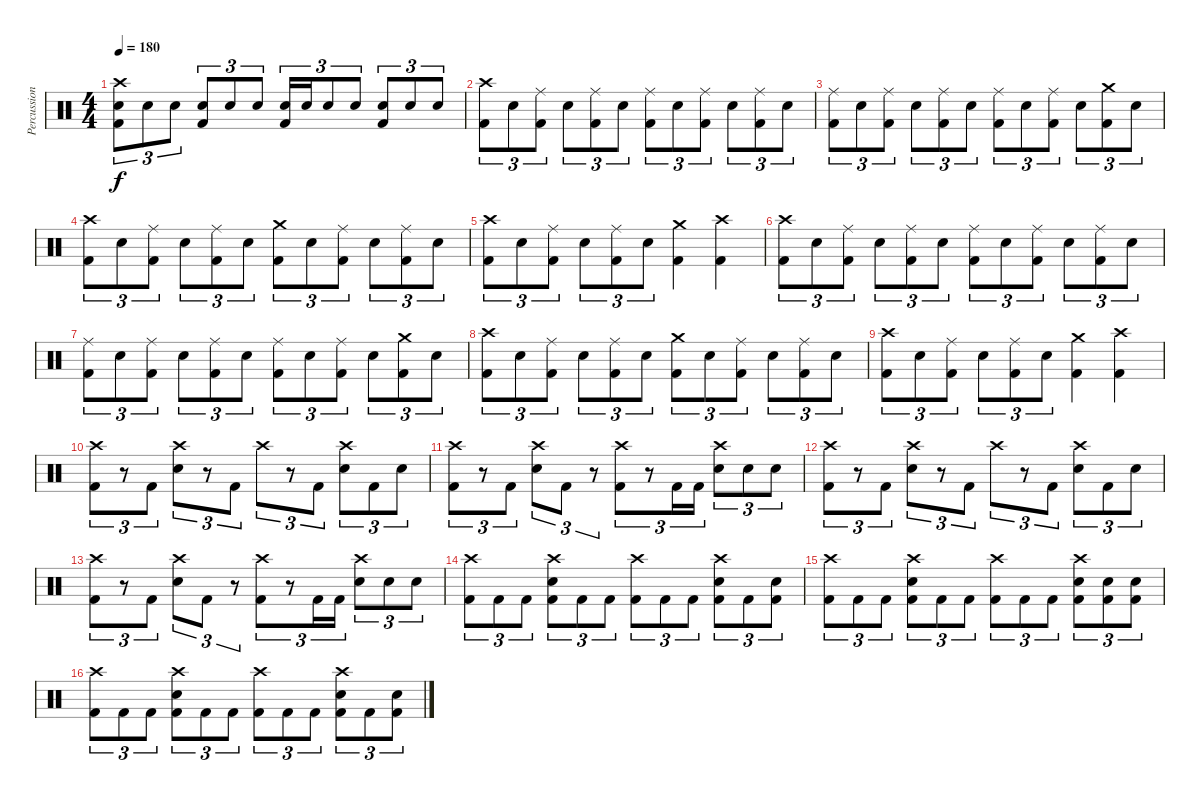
\track ("Percussion" "Percussion") {instrument percussion}
\staff {score}
\articulation defaults
\ts (4 4)
\tempo 180
\clef neutral
\ks c
("Crash high (hit)" "Electric Snare (hit)" "Kick (hit) 2").8{tu (3 2) dy f} "Electric Snare (hit)".8{tu (3 2)} "Electric Snare (hit)".8{tu (3 2)} ("Electric Snare (hit)" "Kick (hit) 2").8{tu (3 2)} "Electric Snare (hit)".8{tu (3 2)} "Electric Snare (hit)".8{tu (3 2)} ("Electric Snare (hit)" "Kick (hit) 2").16{tu (3 2)} "Electric Snare (hit)".16{tu (3 2)} "Electric Snare (hit)".8{tu (3 2)} "Electric Snare (hit)".8{tu (3 2)} ("Electric Snare (hit)" "Kick (hit) 2").8{tu (3 2)} "Electric Snare (hit)".8{tu (3 2)} "Electric Snare (hit)".8{tu (3 2)} |
("Crash high (hit)" "Kick (hit) 2").8{tu (3 2)} "Electric Snare (hit)".8{tu (3 2)} ("Ride (middle)" "Kick (hit) 2").8{tu (3 2)} "Electric Snare (hit)".8{tu (3 2)} ("Ride (middle)" "Kick (hit) 2").8{tu (3 2)} "Electric Snare (hit)".8{tu (3 2)} ("Ride (middle)" "Kick (hit) 2").8{tu (3 2)} "Electric Snare (hit)".8{tu (3 2)} ("Ride (middle)" "Kick (hit) 2").8{tu (3 2)} "Electric Snare (hit)".8{tu (3 2)} ("Ride (middle)" "Kick (hit) 2").8{tu (3 2)} "Electric Snare (hit)".8{tu (3 2)} |
("Ride (middle)" "Kick (hit) 2").8{tu (3 2)} "Electric Snare (hit)".8{tu (3 2)} ("Ride (middle)" "Kick (hit) 2").8{tu (3 2)} "Electric Snare (hit)".8{tu (3 2)} ("Ride (middle)" "Kick (hit) 2").8{tu (3 2)} "Electric Snare (hit)".8{tu (3 2)} ("Ride (middle)" "Kick (hit) 2").8{tu (3 2)} "Electric Snare (hit)".8{tu (3 2)} ("Ride (middle)" "Kick (hit) 2").8{tu (3 2)} "Electric Snare (hit)".8{tu (3 2)} ("Crash medium (hit)" "Kick (hit) 2").8{tu (3 2)} "Electric Snare (hit)".8{tu (3 2)} |
("Crash high (hit)" "Kick (hit) 2").8{tu (3 2)} "Electric Snare (hit)".8{tu (3 2)} ("Ride (middle)" "Kick (hit) 2").8{tu (3 2)} "Electric Snare (hit)".8{tu (3 2)} ("Ride (middle)" "Kick (hit) 2").8{tu (3 2)} "Electric Snare (hit)".8{tu (3 2)} ("Crash medium (hit)" "Kick (hit) 2").8{tu (3 2)} "Electric Snare (hit)".8{tu (3 2)} ("Ride (middle)" "Kick (hit) 2").8{tu (3 2)} "Electric Snare (hit)".8{tu (3 2)} ("Ride (middle)" "Kick (hit) 2").8{tu (3 2)} "Electric Snare (hit)".8{tu (3 2)} |
("Crash high (hit)" "Kick (hit) 2").8{tu (3 2)} "Electric Snare (hit)".8{tu (3 2)} ("Ride (middle)" "Kick (hit) 2").8{tu (3 2)} "Electric Snare (hit)".8{tu (3 2)} ("Ride (middle)" "Kick (hit) 2").8{tu (3 2)} "Electric Snare (hit)".8{tu (3 2)} ("Crash medium (hit)" "Kick (hit) 2").4 ("Crash high (hit)" "Kick (hit) 2").4 |
("Crash high (hit)" "Kick (hit) 2").8{tu (3 2)} "Electric Snare (hit)".8{tu (3 2)} ("Ride (middle)" "Kick (hit) 2").8{tu (3 2)} "Electric Snare (hit)".8{tu (3 2)} ("Ride (middle)" "Kick (hit) 2").8{tu (3 2)} "Electric Snare (hit)".8{tu (3 2)} ("Ride (middle)" "Kick (hit) 2").8{tu (3 2)} "Electric Snare (hit)".8{tu (3 2)} ("Ride (middle)" "Kick (hit) 2").8{tu (3 2)} "Electric Snare (hit)".8{tu (3 2)} ("Ride (middle)" "Kick (hit) 2").8{tu (3 2)} "Electric Snare (hit)".8{tu (3 2)} |
("Ride (middle)" "Kick (hit) 2").8{tu (3 2)} "Electric Snare (hit)".8{tu (3 2)} ("Ride (middle)" "Kick (hit) 2").8{tu (3 2)} "Electric Snare (hit)".8{tu (3 2)} ("Ride (middle)" "Kick (hit) 2").8{tu (3 2)} "Electric Snare (hit)".8{tu (3 2)} ("Ride (middle)" "Kick (hit) 2").8{tu (3 2)} "Electric Snare (hit)".8{tu (3 2)} ("Ride (middle)" "Kick (hit) 2").8{tu (3 2)} "Electric Snare (hit)".8{tu (3 2)} ("Crash medium (hit)" "Kick (hit) 2").8{tu (3 2)} "Electric Snare (hit)".8{tu (3 2)} |
("Crash high (hit)" "Kick (hit) 2").8{tu (3 2)} "Electric Snare (hit)".8{tu (3 2)} ("Ride (middle)" "Kick (hit) 2").8{tu (3 2)} "Electric Snare (hit)".8{tu (3 2)} ("Ride (middle)" "Kick (hit) 2").8{tu (3 2)} "Electric Snare (hit)".8{tu (3 2)} ("Crash medium (hit)" "Kick (hit) 2").8{tu (3 2)} "Electric Snare (hit)".8{tu (3 2)} ("Ride (middle)" "Kick (hit) 2").8{tu (3 2)} "Electric Snare (hit)".8{tu (3 2)} ("Ride (middle)" "Kick (hit) 2").8{tu (3 2)} "Electric Snare (hit)".8{tu (3 2)} |
("Crash high (hit)" "Kick (hit) 2").8{tu (3 2)} "Electric Snare (hit)".8{tu (3 2)} ("Ride (middle)" "Kick (hit) 2").8{tu (3 2)} "Electric Snare (hit)".8{tu (3 2)} ("Ride (middle)" "Kick (hit) 2").8{tu (3 2)} "Electric Snare (hit)".8{tu (3 2)} ("Crash medium (hit)" "Kick (hit) 2").4 ("Crash high (hit)" "Kick (hit) 2").4 |
("Crash high (hit)" "Kick (hit) 2").8{tu (3 2)} r.8{tu (3 2)} "Kick (hit) 2".8{tu (3 2)} ("Crash high (hit)" "Electric Snare (hit)").8{tu (3 2)} r.8{tu (3 2)} "Kick (hit) 2".8{tu (3 2)} "Crash high (hit)".8{tu (3 2)} r.8{tu (3 2)} "Kick (hit) 2".8{tu (3 2)} ("Crash high (hit)" "Electric Snare (hit)").8{tu (3 2)} "Kick (hit) 2".8{tu (3 2)} "Electric Snare (hit)".8{tu (3 2)} |
("Crash high (hit)" "Kick (hit) 2").8{tu (3 2)} r.8{tu (3 2)} "Kick (hit) 2".8{tu (3 2)} ("Crash high (hit)" "Electric Snare (hit)").8{tu (3 2)} "Kick (hit) 2".8{tu (3 2)} r.8{tu (3 2)} ("Crash high (hit)" "Kick (hit) 2").8{tu (3 2)} r.8{tu (3 2)} "Kick (hit) 2".16{tu (3 2)} "Kick (hit) 2".16{tu (3 2)} ("Crash high (hit)" "Electric Snare (hit)").8{tu (3 2)} "Electric Snare (hit)".8{tu (3 2)} "Electric Snare (hit)".8{tu (3 2)} |
("Crash high (hit)" "Kick (hit) 2").8{tu (3 2)} r.8{tu (3 2)} "Kick (hit) 2".8{tu (3 2)} ("Crash high (hit)" "Electric Snare (hit)").8{tu (3 2)} r.8{tu (3 2)} "Kick (hit) 2".8{tu (3 2)} "Crash high (hit)".8{tu (3 2)} r.8{tu (3 2)} "Kick (hit) 2".8{tu (3 2)} ("Crash high (hit)" "Electric Snare (hit)").8{tu (3 2)} "Kick (hit) 2".8{tu (3 2)} "Electric Snare (hit)".8{tu (3 2)} |
("Crash high (hit)" "Kick (hit) 2").8{tu (3 2)} r.8{tu (3 2)} "Kick (hit) 2".8{tu (3 2)} ("Crash high (hit)" "Electric Snare (hit)").8{tu (3 2)} "Kick (hit) 2".8{tu (3 2)} r.8{tu (3 2)} ("Crash high (hit)" "Kick (hit) 2").8{tu (3 2)} r.8{tu (3 2)} "Kick (hit) 2".16{tu (3 2)} "Kick (hit) 2".16{tu (3 2)} ("Crash high (hit)" "Electric Snare (hit)").8{tu (3 2)} "Electric Snare (hit)".8{tu (3 2)} "Electric Snare (hit)".8{tu (3 2)} |
("Crash high (hit)" "Kick (hit) 2").8{tu (3 2)} "Kick (hit) 2".8{tu (3 2)} "Kick (hit) 2".8{tu (3 2)} ("Crash high (hit)" "Electric Snare (hit)" "Kick (hit) 2").8{tu (3 2)} "Kick (hit) 2".8{tu (3 2)} "Kick (hit) 2".8{tu (3 2)} ("Crash high (hit)" "Kick (hit) 2").8{tu (3 2)} "Kick (hit) 2".8{tu (3 2)} "Kick (hit) 2".8{tu (3 2)} ("Crash high (hit)" "Electric Snare (hit)" "Kick (hit) 2").8{tu (3 2)} "Kick (hit) 2".8{tu (3 2)} ("Electric Snare (hit)" "Kick (hit) 2").8{tu (3 2)} |
("Crash high (hit)" "Kick (hit) 2").8{tu (3 2)} "Kick (hit) 2".8{tu (3 2)} "Kick (hit) 2".8{tu (3 2)} ("Crash high (hit)" "Electric Snare (hit)" "Kick (hit) 2").8{tu (3 2)} "Kick (hit) 2".8{tu (3 2)} "Kick (hit) 2".8{tu (3 2)} ("Crash high (hit)" "Kick (hit) 2").8{tu (3 2)} "Kick (hit) 2".8{tu (3 2)} "Kick (hit) 2".8{tu (3 2)} ("Crash high (hit)" "Electric Snare (hit)" "Kick (hit) 2").8{tu (3 2)} ("Electric Snare (hit)" "Kick (hit) 2").8{tu (3 2)} ("Electric Snare (hit)" "Kick (hit) 2").8{tu (3 2)} |
("Crash high (hit)" "Kick (hit) 2").8{tu (3 2)} "Kick (hit) 2".8{tu (3 2)} "Kick (hit) 2".8{tu (3 2)} ("Crash high (hit)" "Electric Snare (hit)" "Kick (hit) 2").8{tu (3 2)} "Kick (hit) 2".8{tu (3 2)} "Kick (hit) 2".8{tu (3 2)} ("Crash high (hit)" "Kick (hit) 2").8{tu (3 2)} "Kick (hit) 2".8{tu (3 2)} "Kick (hit) 2".8{tu (3 2)} ("Crash high (hit)" "Electric Snare (hit)" "Kick (hit) 2").8{tu (3 2)} "Kick (hit) 2".8{tu (3 2)} ("Electric Snare (hit)" "Kick (hit) 2").8{tu (3 2)}
